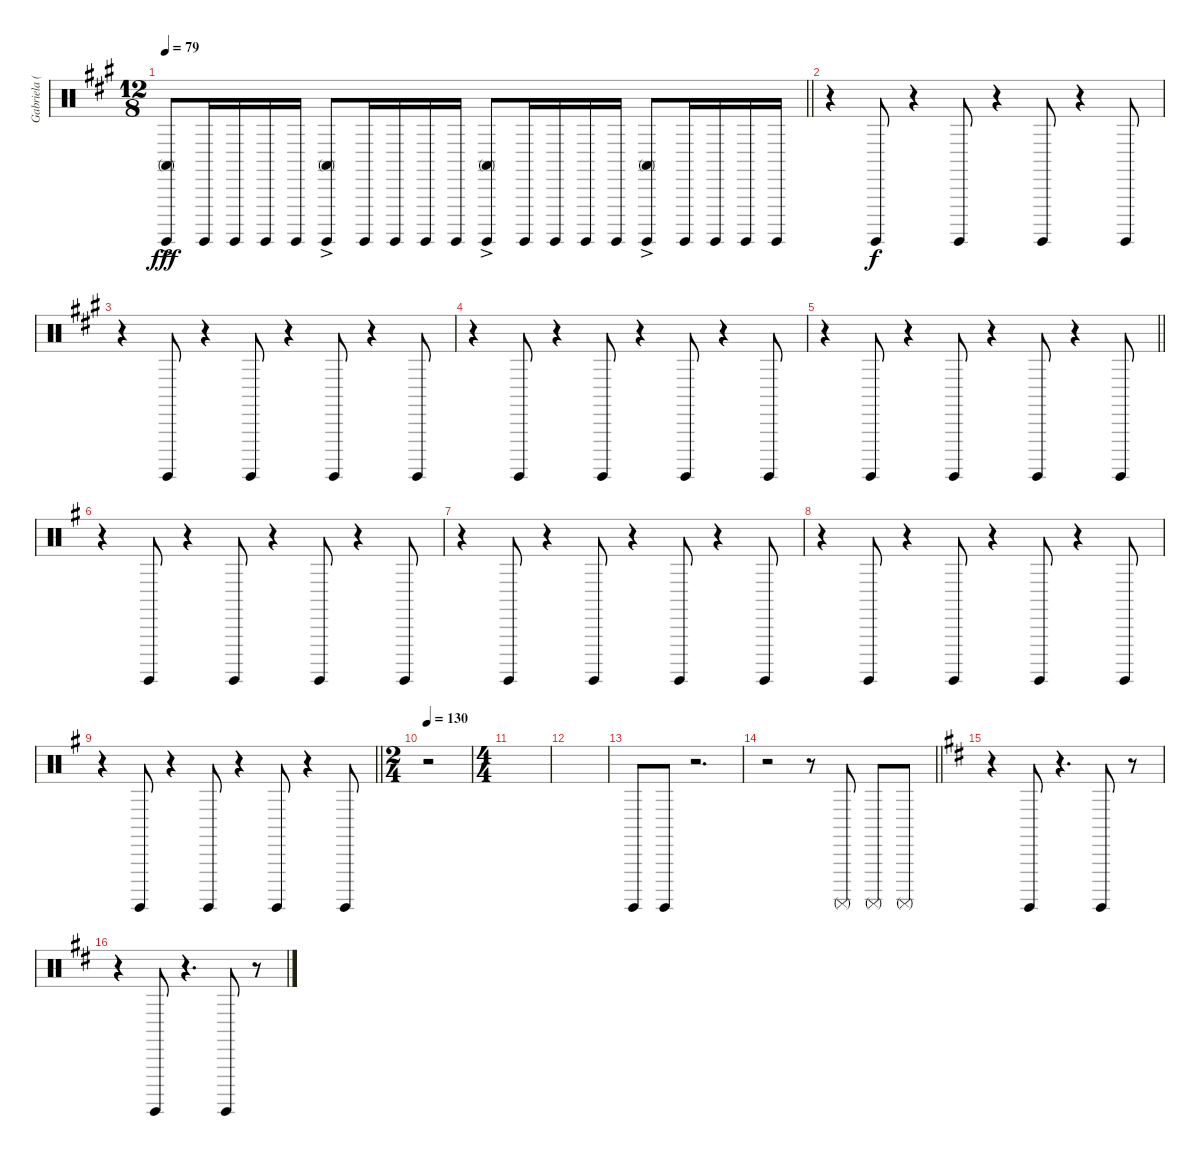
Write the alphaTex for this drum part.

\track ("Gabriela (Percussion)" "Gabriela (") {instrument percussion}
\staff {score}
\articulation defaults
\ts (12 8)
\tempo 79
\clef neutral
\barLineRight lightlight
\ks f#minor
("Conga high (mute)" "Surdo (hit)"{ac}).8{dy fff} "Surdo (hit)".16 "Surdo (hit)".16 "Surdo (hit)".16 "Surdo (hit)".16 ("Conga high (mute)" "Surdo (hit)"{ac}).8 "Surdo (hit)".16 "Surdo (hit)".16 "Surdo (hit)".16 "Surdo (hit)".16 ("Conga high (mute)" "Surdo (hit)"{ac}).8 "Surdo (hit)".16 "Surdo (hit)".16 "Surdo (hit)".16 "Surdo (hit)".16 ("Conga high (mute)" "Surdo (hit)"{ac}).8 "Surdo (hit)".16 "Surdo (hit)".16 "Surdo (hit)".16 "Surdo (hit)".16 |
r.4 "Surdo (hit)".8{dy f} r.4 "Surdo (hit)".8 r.4 "Surdo (hit)".8 r.4 "Surdo (hit)".8 |
r.4 "Surdo (hit)".8 r.4 "Surdo (hit)".8 r.4 "Surdo (hit)".8 r.4 "Surdo (hit)".8 |
r.4 "Surdo (hit)".8 r.4 "Surdo (hit)".8 r.4 "Surdo (hit)".8 r.4 "Surdo (hit)".8 |
\barLineRight lightlight
r.4 "Surdo (hit)".8 r.4 "Surdo (hit)".8 r.4 "Surdo (hit)".8 r.4 "Surdo (hit)".8 |
\ks eminor
r.4 "Surdo (hit)".8 r.4 "Surdo (hit)".8 r.4 "Surdo (hit)".8 r.4 "Surdo (hit)".8 |
r.4 "Surdo (hit)".8 r.4 "Surdo (hit)".8 r.4 "Surdo (hit)".8 r.4 "Surdo (hit)".8 |
r.4 "Surdo (hit)".8 r.4 "Surdo (hit)".8 r.4 "Surdo (hit)".8 r.4 "Surdo (hit)".8 |
\barLineRight lightlight
r.4 "Surdo (hit)".8 r.4 "Surdo (hit)".8 r.4 "Surdo (hit)".8 r.4 "Surdo (hit)".8 |
\ts (2 4)
\tempo 130
r.2 |
\ts (4 4)
|
|
"Surdo (hit)".8 "Surdo (hit)".8 r.2{d} |
\barLineRight lightlight
r.2 r.8 "Surdo (mute)".8 "Surdo (mute)".8 "Surdo (mute)".8 |
\ks bminor
r.4 "Surdo (hit)".8 r.4{d} "Surdo (hit)".8 r.8 |
r.4 "Surdo (hit)".8 r.4{d} "Surdo (hit)".8 r.8
